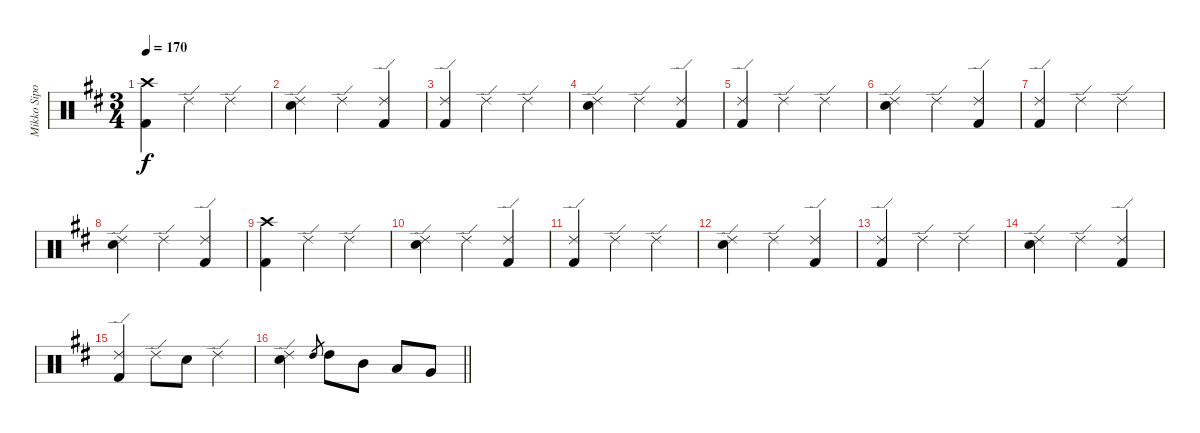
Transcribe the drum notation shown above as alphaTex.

\track ("Mikko Sipola (drums)" "Mikko Sipo") {instrument percussion}
\staff {score}
\articulation defaults
\ts (3 4)
\tempo 170
\clef neutral
\ks bminor
("Crash high (hit)" "Kick (hit) 2").4{dy f} "Ride (edge) 2".4 "Ride (edge) 2".4 |
("Ride (edge) 2" "Electric Snare (hit)").4 "Ride (edge) 2".4 ("Ride (edge) 2" "Kick (hit) 2").4 |
("Ride (edge) 2" "Kick (hit) 2").4 "Ride (edge) 2".4 "Ride (edge) 2".4 |
("Ride (edge) 2" "Electric Snare (hit)").4 "Ride (edge) 2".4 ("Ride (edge) 2" "Kick (hit) 2").4 |
("Ride (edge) 2" "Kick (hit) 2").4 "Ride (edge) 2".4 "Ride (edge) 2".4 |
("Ride (edge) 2" "Electric Snare (hit)").4 "Ride (edge) 2".4 ("Ride (edge) 2" "Kick (hit) 2").4 |
("Ride (edge) 2" "Kick (hit) 2").4 "Ride (edge) 2".4 "Ride (edge) 2".4 |
("Ride (edge) 2" "Electric Snare (hit)").4 "Ride (edge) 2".4 ("Ride (edge) 2" "Kick (hit) 2").4 |
("Crash high (hit)" "Kick (hit) 2").4 "Ride (edge) 2".4 "Ride (edge) 2".4 |
("Ride (edge) 2" "Electric Snare (hit)").4 "Ride (edge) 2".4 ("Ride (edge) 2" "Kick (hit) 2").4 |
("Ride (edge) 2" "Kick (hit) 2").4 "Ride (edge) 2".4 "Ride (edge) 2".4 |
("Ride (edge) 2" "Electric Snare (hit)").4 "Ride (edge) 2".4 ("Ride (edge) 2" "Kick (hit) 2").4 |
("Ride (edge) 2" "Kick (hit) 2").4 "Ride (edge) 2".4 "Ride (edge) 2".4 |
("Ride (edge) 2" "Electric Snare (hit)").4 "Ride (edge) 2".4 ("Ride (edge) 2" "Kick (hit) 2").4 |
("Ride (edge) 2" "Kick (hit) 2").4 "Ride (edge) 2".8 "Electric Snare (hit)".8 "Ride (edge) 2".4 |
\barLineRight lightlight
("Ride (edge) 2" "Electric Snare (hit)").4 "High Tom (hit)".8{gr} "High Tom (hit)".8 "Mid Tom (hit)".8 "Low Tom (hit)".8 "Very Low Tom (hit)".8
